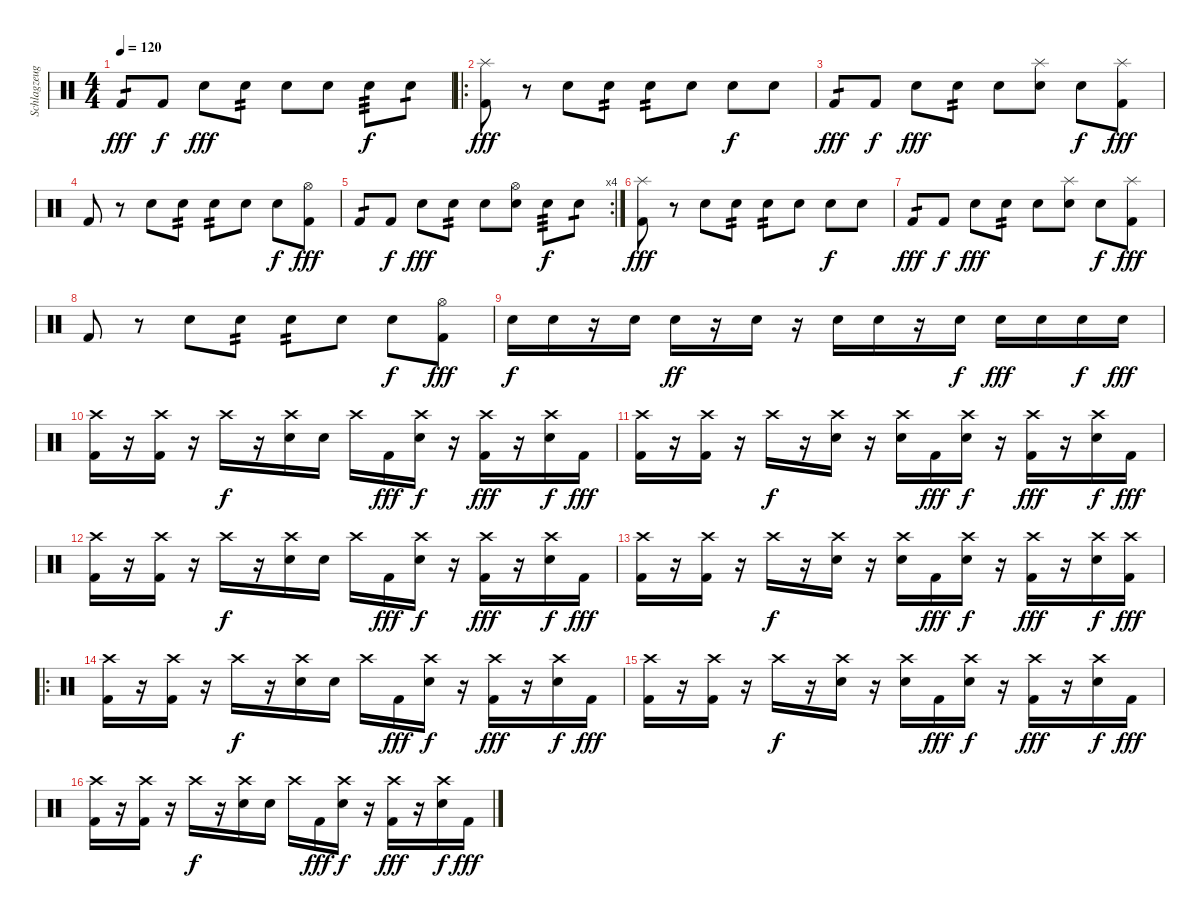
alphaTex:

\track ("Schlagzeug" "Schlagzeug") {instrument percussion}
\staff {score}
\articulation defaults
\ts (4 4)
\tempo 120
\clef neutral
\ks c "Kick (hit) 2".8{tp 1 dy fff} "Kick (hit) 2".8{dy f} "Snare (hit) 2".8{dy fff} "Snare (hit) 2".8{tp 2} "Snare (hit) 2".8 "Snare (hit) 2".8 "Snare (hit) 2".8{tp 3 dy f} "Snare (hit) 2".8{tp 1}
|
\ro
("Kick (hit) 2" "Splash (hit)").8{dy fff} r.8 "Snare (hit) 2".8 "Snare (hit) 2".8{tp 2} "Snare (hit) 2".8{tp 2} "Snare (hit) 2".8 "Snare (hit) 2".8{dy f} "Snare (hit) 2".8 |
"Kick (hit) 2".8{tp 1 dy fff} "Kick (hit) 2".8{dy f} "Snare (hit) 2".8{dy fff} "Snare (hit) 2".8{tp 2} "Snare (hit) 2".8 ("Snare (hit) 2" "Splash (hit)").8 "Snare (hit) 2".8{dy f} ("Kick (hit) 2" "Splash (hit)").8{dy fff} |
"Kick (hit) 2".8 r.8 "Snare (hit) 2".8 "Snare (hit) 2".8{tp 2} "Snare (hit) 2".8{tp 2} "Snare (hit) 2".8 "Snare (hit) 2".8{dy f} ("Kick (hit) 2" "Hi-Hat (open)").8{dy fff} |
\rc 4 "Kick (hit) 2".8{tp 1} "Kick (hit) 2".8{dy f} "Snare (hit) 2".8{dy fff} "Snare (hit) 2".8{tp 2} "Snare (hit) 2".8
("Snare (hit) 2" "Hi-Hat (open)").8 "Snare (hit) 2".8{tp 3 dy f} "Snare (hit) 2".8{tp 1} |
("Kick (hit) 2" "Splash (hit)").8{dy fff} r.8 "Snare (hit) 2".8 "Snare (hit) 2".8{tp 2} "Snare (hit) 2".8{tp 2} "Snare (hit) 2".8 "Snare (hit) 2".8{dy f} "Snare (hit) 2".8 |
"Kick (hit) 2".8{tp 1 dy fff} "Kick (hit) 2".8{dy f} "Snare (hit) 2".8{dy fff} "Snare (hit) 2".8{tp 2} "Snare (hit) 2".8 ("Snare (hit) 2" "Splash (hit)").8 "Snare (hit) 2".8{dy f} ("Kick (hit) 2" "Splash (hit)").8{dy fff} |
"Kick (hit) 2".8 r.8 "Snare (hit) 2".8 "Snare (hit) 2".8{tp 2} "Snare (hit) 2".8{tp 2} "Snare (hit) 2".8 "Snare (hit) 2".8{dy f} ("Kick (hit) 2" "Hi-Hat (open)").8{dy fff} |
"Snare (hit) 2".16{dy f} "Snare (hit) 2".16 r.16 "Snare (hit) 2".16 "Snare (hit) 2".16{dy ff} r.16 "Snare (hit) 2".16 r.16 "Snare (hit) 2".16 "Snare (hit) 2".16 r.16 "Snare (hit) 2".16{dy f} "Snare (hit) 2".16{dy fff} "Snare (hit) 2".16 "Snare (hit) 2".16{dy f} "Snare (hit) 2".16{dy fff} |
("Crash high (hit)" "Kick (hit) 2").16 r.16 ("Crash high (hit)" "Kick (hit) 2").16 r.16 "Crash high (hit)".16{dy f} r.16 ("Crash high (hit)" "Snare (hit) 2").16 "Snare (hit) 2".16 "Crash high (hit)".16 "Kick (hit) 2".16{dy fff} ("Crash high (hit)" "Snare (hit) 2").16{dy f} r.16 ("Crash high (hit)" "Kick (hit) 2").16{dy fff} r.16 ("Crash high (hit)" "Snare (hit) 2").16{dy f} "Kick (hit) 2".16{dy fff} |
("Crash high (hit)" "Kick (hit) 2").16 r.16 ("Crash high (hit)" "Kick (hit) 2").16 r.16 "Crash high (hit)".16{dy f} r.16 ("Crash high (hit)" "Snare (hit) 2").16 r.16 ("Crash high (hit)" "Snare (hit) 2").16 "Kick (hit) 2".16{dy fff} ("Crash high (hit)" "Snare (hit) 2").16{dy f} r.16 ("Crash high (hit)" "Kick (hit) 2").16{dy fff} r.16 ("Crash high (hit)" "Snare (hit) 2").16{dy f} "Kick (hit) 2".16{dy fff} |
("Crash high (hit)" "Kick (hit) 2").16 r.16 ("Crash high (hit)" "Kick (hit) 2").16 r.16 "Crash high (hit)".16{dy f} r.16 ("Crash high (hit)" "Snare (hit) 2").16 "Snare (hit) 2".16 "Crash high (hit)".16 "Kick (hit) 2".16{dy fff} ("Crash high (hit)" "Snare (hit) 2").16{dy f} r.16 ("Crash high (hit)" "Kick (hit) 2").16{dy fff} r.16 ("Crash high (hit)" "Snare (hit) 2").16{dy f} "Kick (hit) 2".16{dy fff} |
("Crash high (hit)" "Kick (hit) 2").16 r.16 ("Crash high (hit)" "Kick (hit) 2").16 r.16 "Crash high (hit)".16{dy f} r.16 ("Crash high (hit)" "Snare (hit) 2").16 r.16 ("Crash high (hit)" "Snare (hit) 2").16 "Kick (hit) 2".16{dy fff} ("Crash high (hit)" "Snare (hit) 2").16{dy f} r.16 ("Crash high (hit)" "Kick (hit) 2").16{dy fff} r.16 ("Crash high (hit)" "Snare (hit) 2").16{dy f} ("Crash high (hit)" "Kick (hit) 2").16{dy fff} |
\ro
("Crash high (hit)" "Kick (hit) 2").16 r.16 ("Crash high (hit)" "Kick (hit) 2").16 r.16 "Crash high (hit)".16{dy f} r.16 ("Crash high (hit)" "Snare (hit) 2").16 "Snare (hit) 2".16 "Crash high (hit)".16 "Kick (hit) 2".16{dy fff} ("Crash high (hit)" "Snare (hit) 2").16{dy f} r.16 ("Crash high (hit)" "Kick (hit) 2").16{dy fff} r.16 ("Crash high (hit)" "Snare (hit) 2").16{dy f} "Kick (hit) 2".16{dy fff} |
("Crash high (hit)" "Kick (hit) 2").16 r.16 ("Crash high (hit)" "Kick (hit) 2").16 r.16 "Crash high (hit)".16{dy f} r.16 ("Crash high (hit)" "Snare (hit) 2").16 r.16 ("Crash high (hit)" "Snare (hit) 2").16 "Kick (hit) 2".16{dy fff} ("Crash high (hit)" "Snare (hit) 2").16{dy f} r.16 ("Crash high (hit)" "Kick (hit) 2").16{dy fff} r.16 ("Crash high (hit)" "Snare (hit) 2").16{dy f} "Kick (hit) 2".16{dy fff} |
("Crash high (hit)" "Kick (hit) 2").16 r.16 ("Crash high (hit)" "Kick (hit) 2").16 r.16 "Crash high (hit)".16{dy f} r.16 ("Crash high (hit)" "Snare (hit) 2").16 "Snare (hit) 2".16 "Crash high (hit)".16 "Kick (hit) 2".16{dy fff} ("Crash high (hit)" "Snare (hit) 2").16{dy f} r.16 ("Crash high (hit)" "Kick (hit) 2").16{dy fff} r.16 ("Crash high (hit)" "Snare (hit) 2").16{dy f} "Kick (hit) 2".16{dy fff}
